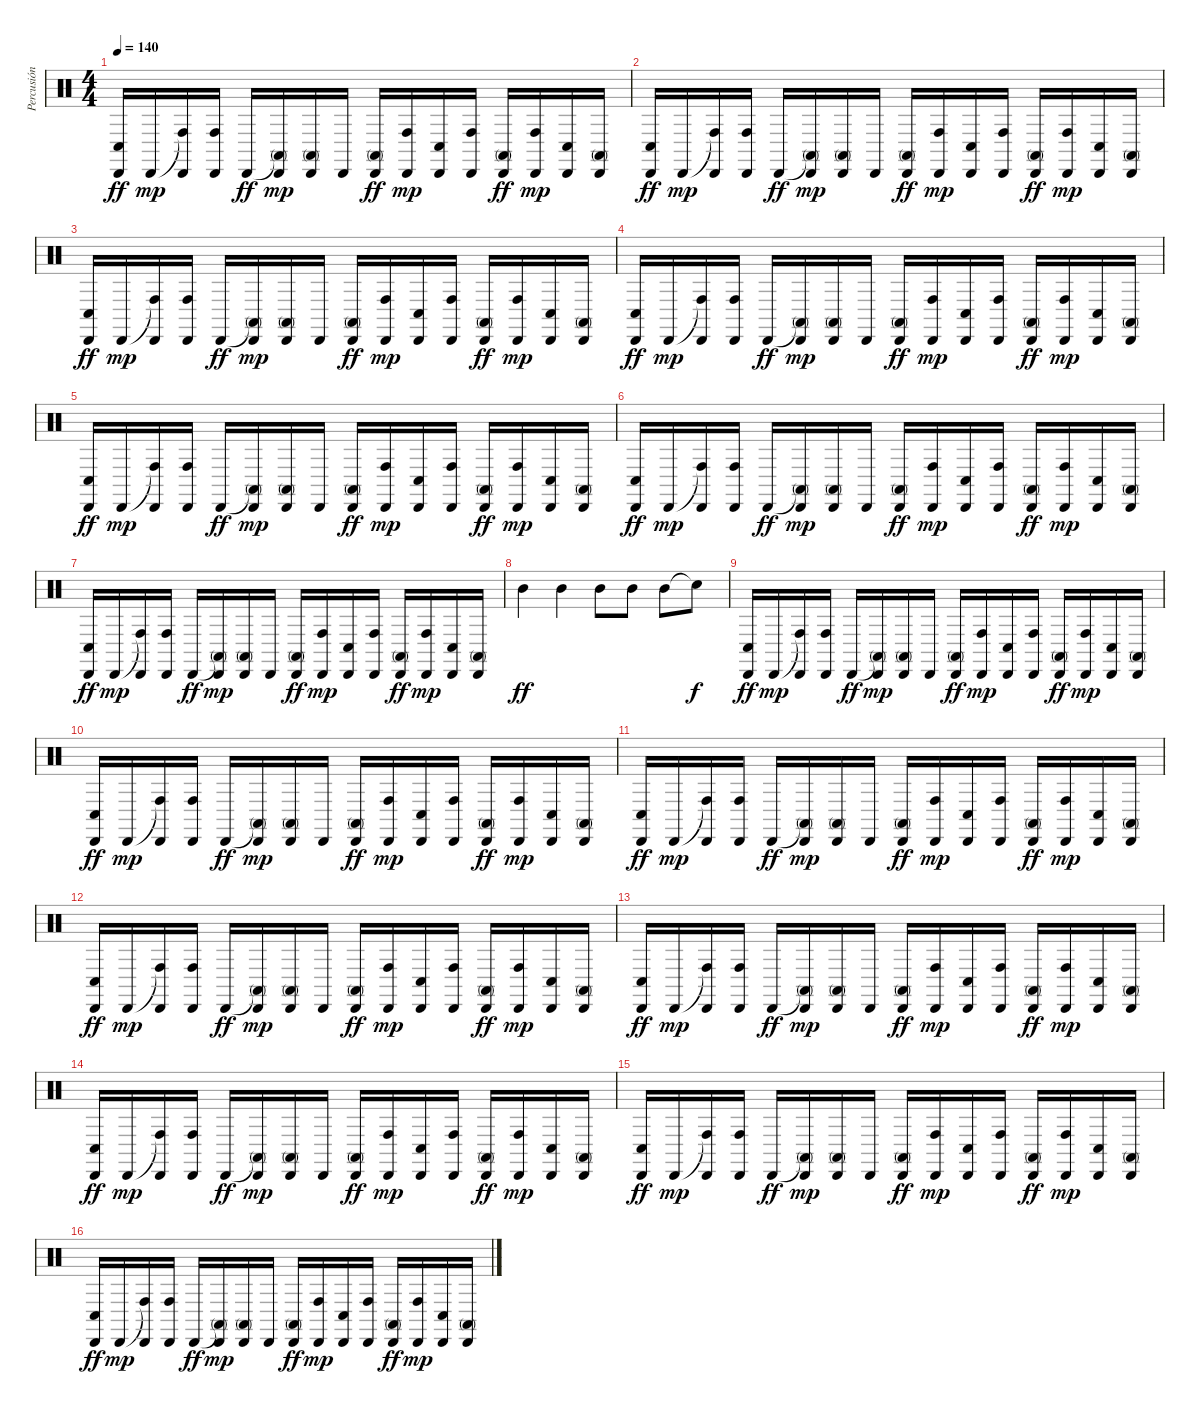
\track ("Percusión" "Percusión") {instrument percussion}
\staff {score}
\articulation defaults
\ts (4 4)
\tempo 140
\clef neutral
\ks c
("Conga low (hit)" "Cabasa (hit)").16{dy ff} "Cabasa (hit)".16{dy mp} ("Conga high (hit)"{t} "Cabasa (hit)").16 ("Conga high (hit)" "Cabasa (hit)").16 "Cabasa (hit)".16{dy ff} ("Conga high (mute)"{t} "Cabasa (hit)").16{dy mp} ("Conga high (mute)" "Cabasa (hit)").16 "Cabasa (hit)".16 ("Conga high (mute)" "Cabasa (hit)").16{dy ff} ("Conga high (hit)" "Cabasa (hit)").16{dy mp} ("Conga low (hit)" "Cabasa (hit)").16 ("Conga high (hit)" "Cabasa (hit)").16 ("Conga high (mute)" "Cabasa (hit)").16{dy ff} ("Conga high (hit)" "Cabasa (hit)").16{dy mp} ("Conga low (hit)" "Cabasa (hit)").16 ("Conga high (mute)" "Cabasa (hit)").16 |
("Conga low (hit)" "Cabasa (hit)").16{dy ff} "Cabasa (hit)".16{dy mp} ("Conga high (hit)"{t} "Cabasa (hit)").16 ("Conga high (hit)" "Cabasa (hit)").16 "Cabasa (hit)".16{dy ff} ("Conga high (mute)"{t} "Cabasa (hit)").16{dy mp} ("Conga high (mute)" "Cabasa (hit)").16 "Cabasa (hit)".16 ("Conga high (mute)" "Cabasa (hit)").16{dy ff} ("Conga high (hit)" "Cabasa (hit)").16{dy mp} ("Conga low (hit)" "Cabasa (hit)").16 ("Conga high (hit)" "Cabasa (hit)").16 ("Conga high (mute)" "Cabasa (hit)").16{dy ff} ("Conga high (hit)" "Cabasa (hit)").16{dy mp} ("Conga low (hit)" "Cabasa (hit)").16 ("Conga high (mute)" "Cabasa (hit)").16 |
("Conga low (hit)" "Cabasa (hit)").16{dy ff} "Cabasa (hit)".16{dy mp} ("Conga high (hit)"{t} "Cabasa (hit)").16 ("Conga high (hit)" "Cabasa (hit)").16 "Cabasa (hit)".16{dy ff} ("Conga high (mute)"{t} "Cabasa (hit)").16{dy mp} ("Conga high (mute)" "Cabasa (hit)").16 "Cabasa (hit)".16 ("Conga high (mute)" "Cabasa (hit)").16{dy ff} ("Conga high (hit)" "Cabasa (hit)").16{dy mp} ("Conga low (hit)" "Cabasa (hit)").16 ("Conga high (hit)" "Cabasa (hit)").16 ("Conga high (mute)" "Cabasa (hit)").16{dy ff} ("Conga high (hit)" "Cabasa (hit)").16{dy mp} ("Conga low (hit)" "Cabasa (hit)").16 ("Conga high (mute)" "Cabasa (hit)").16 |
("Conga low (hit)" "Cabasa (hit)").16{dy ff} "Cabasa (hit)".16{dy mp} ("Conga high (hit)"{t} "Cabasa (hit)").16 ("Conga high (hit)" "Cabasa (hit)").16 "Cabasa (hit)".16{dy ff} ("Conga high (mute)"{t} "Cabasa (hit)").16{dy mp} ("Conga high (mute)" "Cabasa (hit)").16 "Cabasa (hit)".16 ("Conga high (mute)" "Cabasa (hit)").16{dy ff} ("Conga high (hit)" "Cabasa (hit)").16{dy mp} ("Conga low (hit)" "Cabasa (hit)").16 ("Conga high (hit)" "Cabasa (hit)").16 ("Conga high (mute)" "Cabasa (hit)").16{dy ff} ("Conga high (hit)" "Cabasa (hit)").16{dy mp} ("Conga low (hit)" "Cabasa (hit)").16 ("Conga high (mute)" "Cabasa (hit)").16 |
("Conga low (hit)" "Cabasa (hit)").16{dy ff} "Cabasa (hit)".16{dy mp} ("Conga high (hit)"{t} "Cabasa (hit)").16 ("Conga high (hit)" "Cabasa (hit)").16 "Cabasa (hit)".16{dy ff} ("Conga high (mute)"{t} "Cabasa (hit)").16{dy mp} ("Conga high (mute)" "Cabasa (hit)").16 "Cabasa (hit)".16 ("Conga high (mute)" "Cabasa (hit)").16{dy ff} ("Conga high (hit)" "Cabasa (hit)").16{dy mp} ("Conga low (hit)" "Cabasa (hit)").16 ("Conga high (hit)" "Cabasa (hit)").16 ("Conga high (mute)" "Cabasa (hit)").16{dy ff} ("Conga high (hit)" "Cabasa (hit)").16{dy mp} ("Conga low (hit)" "Cabasa (hit)").16 ("Conga high (mute)" "Cabasa (hit)").16 |
("Conga low (hit)" "Cabasa (hit)").16{dy ff} "Cabasa (hit)".16{dy mp} ("Conga high (hit)"{t} "Cabasa (hit)").16 ("Conga high (hit)" "Cabasa (hit)").16 "Cabasa (hit)".16{dy ff} ("Conga high (mute)"{t} "Cabasa (hit)").16{dy mp} ("Conga high (mute)" "Cabasa (hit)").16 "Cabasa (hit)".16 ("Conga high (mute)" "Cabasa (hit)").16{dy ff} ("Conga high (hit)" "Cabasa (hit)").16{dy mp} ("Conga low (hit)" "Cabasa (hit)").16 ("Conga high (hit)" "Cabasa (hit)").16 ("Conga high (mute)" "Cabasa (hit)").16{dy ff} ("Conga high (hit)" "Cabasa (hit)").16{dy mp} ("Conga low (hit)" "Cabasa (hit)").16 ("Conga high (mute)" "Cabasa (hit)").16 |
("Conga low (hit)" "Cabasa (hit)").16{dy ff} "Cabasa (hit)".16{dy mp} ("Conga high (hit)"{t} "Cabasa (hit)").16 ("Conga high (hit)" "Cabasa (hit)").16 "Cabasa (hit)".16{dy ff} ("Conga high (mute)"{t} "Cabasa (hit)").16{dy mp} ("Conga high (mute)" "Cabasa (hit)").16 "Cabasa (hit)".16 ("Conga high (mute)" "Cabasa (hit)").16{dy ff} ("Conga high (hit)" "Cabasa (hit)").16{dy mp} ("Conga low (hit)" "Cabasa (hit)").16 ("Conga high (hit)" "Cabasa (hit)").16 ("Conga high (mute)" "Cabasa (hit)").16{dy ff} ("Conga high (hit)" "Cabasa (hit)").16{dy mp} ("Conga low (hit)" "Cabasa (hit)").16 ("Conga high (mute)" "Cabasa (hit)").16 |
"Mid Tom (hit)".4{dy ff} "Mid Tom (hit)".4 "Mid Tom (hit)".8 "Mid Tom (hit)".8 "Mid Tom (hit)".8 "Snare (hit)"{t}.8{dy f} |
("Conga low (hit)" "Cabasa (hit)").16{dy ff} "Cabasa (hit)".16{dy mp} ("Conga high (hit)"{t} "Cabasa (hit)").16 ("Conga high (hit)" "Cabasa (hit)").16 "Cabasa (hit)".16{dy ff} ("Conga high (mute)"{t} "Cabasa (hit)").16{dy mp} ("Conga high (mute)" "Cabasa (hit)").16 "Cabasa (hit)".16 ("Conga high (mute)" "Cabasa (hit)").16{dy ff} ("Conga high (hit)" "Cabasa (hit)").16{dy mp} ("Conga low (hit)" "Cabasa (hit)").16 ("Conga high (hit)" "Cabasa (hit)").16 ("Conga high (mute)" "Cabasa (hit)").16{dy ff} ("Conga high (hit)" "Cabasa (hit)").16{dy mp} ("Conga low (hit)" "Cabasa (hit)").16 ("Conga high (mute)" "Cabasa (hit)").16 |
("Conga low (hit)" "Cabasa (hit)").16{dy ff} "Cabasa (hit)".16{dy mp} ("Conga high (hit)"{t} "Cabasa (hit)").16 ("Conga high (hit)" "Cabasa (hit)").16 "Cabasa (hit)".16{dy ff} ("Conga high (mute)"{t} "Cabasa (hit)").16{dy mp} ("Conga high (mute)" "Cabasa (hit)").16 "Cabasa (hit)".16 ("Conga high (mute)" "Cabasa (hit)").16{dy ff} ("Conga high (hit)" "Cabasa (hit)").16{dy mp} ("Conga low (hit)" "Cabasa (hit)").16 ("Conga high (hit)" "Cabasa (hit)").16 ("Conga high (mute)" "Cabasa (hit)").16{dy ff} ("Conga high (hit)" "Cabasa (hit)").16{dy mp} ("Conga low (hit)" "Cabasa (hit)").16 ("Conga high (mute)" "Cabasa (hit)").16 |
("Conga low (hit)" "Cabasa (hit)").16{dy ff} "Cabasa (hit)".16{dy mp} ("Conga high (hit)"{t} "Cabasa (hit)").16 ("Conga high (hit)" "Cabasa (hit)").16 "Cabasa (hit)".16{dy ff} ("Conga high (mute)"{t} "Cabasa (hit)").16{dy mp} ("Conga high (mute)" "Cabasa (hit)").16 "Cabasa (hit)".16 ("Conga high (mute)" "Cabasa (hit)").16{dy ff} ("Conga high (hit)" "Cabasa (hit)").16{dy mp} ("Conga low (hit)" "Cabasa (hit)").16 ("Conga high (hit)" "Cabasa (hit)").16 ("Conga high (mute)" "Cabasa (hit)").16{dy ff} ("Conga high (hit)" "Cabasa (hit)").16{dy mp} ("Conga low (hit)" "Cabasa (hit)").16 ("Conga high (mute)" "Cabasa (hit)").16 |
("Conga low (hit)" "Cabasa (hit)").16{dy ff} "Cabasa (hit)".16{dy mp} ("Conga high (hit)"{t} "Cabasa (hit)").16 ("Conga high (hit)" "Cabasa (hit)").16 "Cabasa (hit)".16{dy ff} ("Conga high (mute)"{t} "Cabasa (hit)").16{dy mp} ("Conga high (mute)" "Cabasa (hit)").16 "Cabasa (hit)".16 ("Conga high (mute)" "Cabasa (hit)").16{dy ff} ("Conga high (hit)" "Cabasa (hit)").16{dy mp} ("Conga low (hit)" "Cabasa (hit)").16 ("Conga high (hit)" "Cabasa (hit)").16 ("Conga high (mute)" "Cabasa (hit)").16{dy ff} ("Conga high (hit)" "Cabasa (hit)").16{dy mp} ("Conga low (hit)" "Cabasa (hit)").16 ("Conga high (mute)" "Cabasa (hit)").16 |
("Conga low (hit)" "Cabasa (hit)").16{dy ff} "Cabasa (hit)".16{dy mp} ("Conga high (hit)"{t} "Cabasa (hit)").16 ("Conga high (hit)" "Cabasa (hit)").16 "Cabasa (hit)".16{dy ff} ("Conga high (mute)"{t} "Cabasa (hit)").16{dy mp} ("Conga high (mute)" "Cabasa (hit)").16 "Cabasa (hit)".16 ("Conga high (mute)" "Cabasa (hit)").16{dy ff} ("Conga high (hit)" "Cabasa (hit)").16{dy mp} ("Conga low (hit)" "Cabasa (hit)").16 ("Conga high (hit)" "Cabasa (hit)").16 ("Conga high (mute)" "Cabasa (hit)").16{dy ff} ("Conga high (hit)" "Cabasa (hit)").16{dy mp} ("Conga low (hit)" "Cabasa (hit)").16 ("Conga high (mute)" "Cabasa (hit)").16 |
("Conga low (hit)" "Cabasa (hit)").16{dy ff} "Cabasa (hit)".16{dy mp} ("Conga high (hit)"{t} "Cabasa (hit)").16 ("Conga high (hit)" "Cabasa (hit)").16 "Cabasa (hit)".16{dy ff} ("Conga high (mute)"{t} "Cabasa (hit)").16{dy mp} ("Conga high (mute)" "Cabasa (hit)").16 "Cabasa (hit)".16 ("Conga high (mute)" "Cabasa (hit)").16{dy ff} ("Conga high (hit)" "Cabasa (hit)").16{dy mp} ("Conga low (hit)" "Cabasa (hit)").16 ("Conga high (hit)" "Cabasa (hit)").16 ("Conga high (mute)" "Cabasa (hit)").16{dy ff} ("Conga high (hit)" "Cabasa (hit)").16{dy mp} ("Conga low (hit)" "Cabasa (hit)").16 ("Conga high (mute)" "Cabasa (hit)").16 |
("Conga low (hit)" "Cabasa (hit)").16{dy ff} "Cabasa (hit)".16{dy mp} ("Conga high (hit)"{t} "Cabasa (hit)").16 ("Conga high (hit)" "Cabasa (hit)").16 "Cabasa (hit)".16{dy ff} ("Conga high (mute)"{t} "Cabasa (hit)").16{dy mp} ("Conga high (mute)" "Cabasa (hit)").16 "Cabasa (hit)".16 ("Conga high (mute)" "Cabasa (hit)").16{dy ff} ("Conga high (hit)" "Cabasa (hit)").16{dy mp} ("Conga low (hit)" "Cabasa (hit)").16 ("Conga high (hit)" "Cabasa (hit)").16 ("Conga high (mute)" "Cabasa (hit)").16{dy ff} ("Conga high (hit)" "Cabasa (hit)").16{dy mp} ("Conga low (hit)" "Cabasa (hit)").16 ("Conga high (mute)" "Cabasa (hit)").16 |
("Conga low (hit)" "Cabasa (hit)").16{dy ff} "Cabasa (hit)".16{dy mp} ("Conga high (hit)"{t} "Cabasa (hit)").16 ("Conga high (hit)" "Cabasa (hit)").16 "Cabasa (hit)".16{dy ff} ("Conga high (mute)"{t} "Cabasa (hit)").16{dy mp} ("Conga high (mute)" "Cabasa (hit)").16 "Cabasa (hit)".16 ("Conga high (mute)" "Cabasa (hit)").16{dy ff} ("Conga high (hit)" "Cabasa (hit)").16{dy mp} ("Conga low (hit)" "Cabasa (hit)").16 ("Conga high (hit)" "Cabasa (hit)").16 ("Conga high (mute)" "Cabasa (hit)").16{dy ff} ("Conga high (hit)" "Cabasa (hit)").16{dy mp} ("Conga low (hit)" "Cabasa (hit)").16 ("Conga high (mute)" "Cabasa (hit)").16
